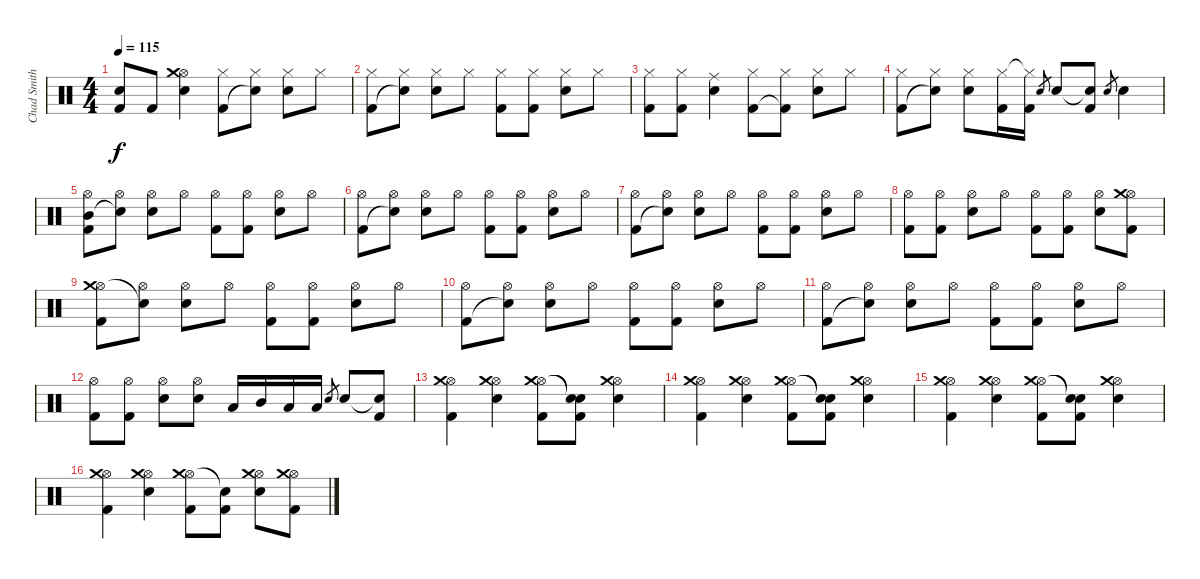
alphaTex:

\track ("Chad Smith" "Chad Smith") {instrument percussion}
\staff {score}
\articulation defaults
\ts (4 4)
\tempo 115
\clef neutral
\ks c
("Snare (hit)"{t} "Kick (hit) 2").8{dy f} "Kick (hit) 2".8 ("Hi-Hat (open)" "Crash medium (hit)" "Electric Snare (hit)").4 ("Hi-Hat (closed)" "Kick (hit) 2").8 ("Hi-Hat (closed)" "Snare (hit)"{t}).8 ("Hi-Hat (closed)" "Electric Snare (hit)").8 "Hi-Hat (closed)".8 |
("Hi-Hat (closed)" "Kick (hit) 2").8 ("Hi-Hat (closed)" "Snare (hit)"{t}).8 ("Hi-Hat (closed)" "Electric Snare (hit)").8 "Hi-Hat (closed)".8 ("Hi-Hat (closed)" "Kick (hit) 2").8 ("Hi-Hat (closed)" "Kick (hit) 2").8 ("Hi-Hat (closed)" "Electric Snare (hit)").8 "Hi-Hat (closed)".8 |
("Hi-Hat (closed)" "Kick (hit) 2").8 ("Hi-Hat (closed)" "Kick (hit) 2").8 ("Ride (middle)" "Electric Snare (hit)").4 ("Hi-Hat (closed)" "Kick (hit) 2").8 ("Hi-Hat (closed)" "Kick (hit) 2"{t}).8 ("Hi-Hat (closed)" "Electric Snare (hit)").8 "Hi-Hat (closed)".8 |
("Hi-Hat (closed)" "Kick (hit) 2").8 ("Hi-Hat (closed)" "Snare (hit)"{t}).8 ("Hi-Hat (closed)" "Electric Snare (hit)").8 ("Hi-Hat (closed)" "Kick (hit) 2").16 ("Hi-Hat (closed)"{t} "Kick (hit) 2").16 "Electric Snare (hit)".8{gr} "Electric Snare (hit)".8 ("Electric Snare (hit)"{t} "Kick (hit) 2").8 "Electric Snare (hit)".8{gr} "Electric Snare (hit)".4 |
("Hi-Hat (open)" "Mid Tom (hit)" "Kick (hit) 2").8 ("Hi-Hat (open)" "Snare (hit)"{t}).8 ("Hi-Hat (open)" "Electric Snare (hit)").8 "Hi-Hat (open)".8 ("Hi-Hat (open)" "Kick (hit) 2").8 ("Hi-Hat (open)" "Kick (hit) 2").8 ("Hi-Hat (open)" "Electric Snare (hit)").8 "Hi-Hat (open)".8 |
("Hi-Hat (open)" "Kick (hit) 2").8 ("Hi-Hat (open)" "Snare (hit)"{t}).8 ("Hi-Hat (open)" "Electric Snare (hit)").8 "Hi-Hat (open)".8 ("Hi-Hat (open)" "Kick (hit) 2").8 ("Hi-Hat (open)" "Kick (hit) 2").8 ("Hi-Hat (open)" "Electric Snare (hit)").8 "Hi-Hat (open)".8 |
("Hi-Hat (open)" "Kick (hit) 2").8 ("Hi-Hat (open)" "Snare (hit)"{t}).8 ("Hi-Hat (open)" "Electric Snare (hit)").8 "Hi-Hat (open)".8 ("Hi-Hat (open)" "Kick (hit) 2").8 ("Hi-Hat (open)" "Kick (hit) 2").8 ("Hi-Hat (open)" "Electric Snare (hit)").8 "Hi-Hat (open)".8 |
("Hi-Hat (open)" "Kick (hit) 2").8 ("Hi-Hat (open)" "Kick (hit) 2").8 ("Hi-Hat (open)" "Electric Snare (hit)").8 "Hi-Hat (open)".8 ("Hi-Hat (open)" "Kick (hit) 2").8 ("Hi-Hat (open)" "Kick (hit) 2").8 ("Hi-Hat (open)" "Electric Snare (hit)").8 ("Hi-Hat (open)" "Crash medium (hit)" "Kick (hit) 2").8 |
("Hi-Hat (open)" "Crash medium (hit)" "Kick (hit) 2").8 ("Hi-Hat (open)" "Snare (hit)"{t}).8 ("Hi-Hat (open)" "Electric Snare (hit)").8 "Hi-Hat (open)".8 ("Hi-Hat (open)" "Kick (hit) 2").8 ("Hi-Hat (open)" "Kick (hit) 2").8 ("Hi-Hat (open)" "Electric Snare (hit)").8 "Hi-Hat (open)".8 |
("Hi-Hat (open)" "Kick (hit) 2").8 ("Hi-Hat (open)" "Snare (hit)"{t}).8 ("Hi-Hat (open)" "Electric Snare (hit)").8 "Hi-Hat (open)".8 ("Hi-Hat (open)" "Kick (hit) 2").8 ("Hi-Hat (open)" "Kick (hit) 2").8 ("Hi-Hat (open)" "Electric Snare (hit)").8 "Hi-Hat (open)".8 |
("Hi-Hat (open)" "Kick (hit) 2").8 ("Hi-Hat (open)" "Snare (hit)"{t}).8 ("Hi-Hat (open)" "Electric Snare (hit)").8 "Hi-Hat (open)".8 ("Hi-Hat (open)" "Kick (hit) 2").8 ("Hi-Hat (open)" "Kick (hit) 2").8 ("Hi-Hat (open)" "Electric Snare (hit)").8 "Hi-Hat (open)".8 |
("Hi-Hat (open)" "Kick (hit) 2").8 ("Hi-Hat (open)" "Kick (hit) 2").8 ("Hi-Hat (open)" "Electric Snare (hit)").8 ("Hi-Hat (open)" "Electric Snare (hit)").8 "Low Tom (hit)".16 "Mid Tom (hit)".16 "Low Tom (hit)".16 "Low Tom (hit)".16 "Electric Snare (hit)"{h}.8{gr} "Electric Snare (hit)".8 ("Snare (hit)"{t} "Kick (hit) 2").8 |
("Hi-Hat (open)" "Crash medium (hit)" "Kick (hit) 2").4 ("Hi-Hat (open)" "Crash medium (hit)" "Electric Snare (hit)").4 ("Hi-Hat (open)" "Crash medium (hit)" "Kick (hit) 2").8 ("Snare (hit)"{t} "Snare (hit)"{t} "Kick (hit) 2").8 ("Hi-Hat (open)" "Crash medium (hit)" "Electric Snare (hit)").4 |
("Hi-Hat (open)" "Crash medium (hit)" "Kick (hit) 2").4 ("Hi-Hat (open)" "Crash medium (hit)" "Electric Snare (hit)").4 ("Hi-Hat (open)" "Crash medium (hit)" "Kick (hit) 2").8 ("Snare (hit)"{t} "Snare (hit)"{t} "Kick (hit) 2").8 ("Hi-Hat (open)" "Crash medium (hit)" "Electric Snare (hit)").4 |
("Hi-Hat (open)" "Crash medium (hit)" "Kick (hit) 2").4 ("Hi-Hat (open)" "Crash medium (hit)" "Electric Snare (hit)").4 ("Hi-Hat (open)" "Crash medium (hit)" "Kick (hit) 2").8 ("Snare (hit)"{t} "Snare (hit)"{t} "Kick (hit) 2").8 ("Hi-Hat (open)" "Crash medium (hit)" "Electric Snare (hit)").4 |
("Hi-Hat (open)" "Crash medium (hit)" "Kick (hit) 2").4 ("Hi-Hat (open)" "Crash medium (hit)" "Electric Snare (hit)").4 ("Hi-Hat (open)" "Crash medium (hit)" "Kick (hit) 2").8 ("Snare (hit)"{t} "Kick (hit) 2").8 ("Hi-Hat (open)" "Crash medium (hit)" "Electric Snare (hit)").8 ("Hi-Hat (open)" "Crash medium (hit)" "Kick (hit) 2").8
